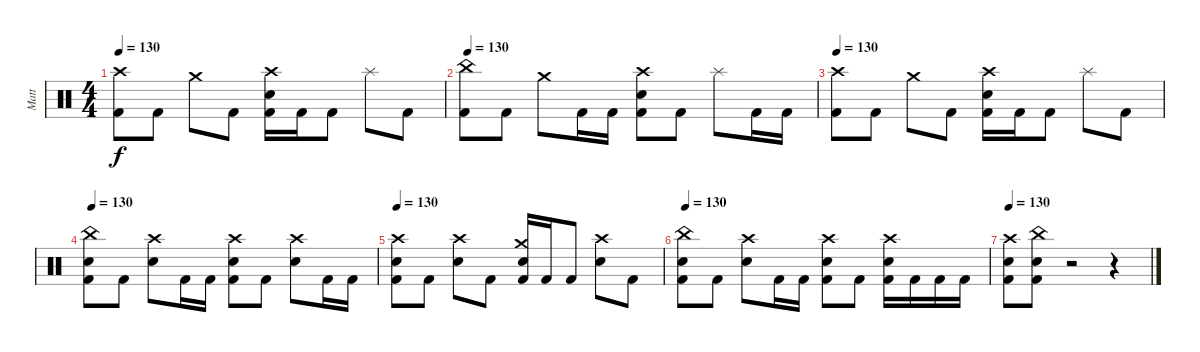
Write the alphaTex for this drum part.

\track ("Matt" "Matt") {instrument percussion}
\staff {score}
\articulation defaults
\ts (4 4)
\tempo 130
\clef neutral
\ks c
("Crash high (hit)" "Kick (hit) 2").8{dy f} "Kick (hit) 2".8 "Crash medium (hit)".8 "Kick (hit) 2".8 ("Crash high (hit)" "Electric Snare (hit)" "Kick (hit) 2").16 "Kick (hit) 2".16 "Kick (hit) 2".8 "Splash (hit)".8 "Kick (hit) 2".8 |
\tempo 130
("China (hit)" "Kick (hit) 2").8 "Kick (hit) 2".8 "Crash medium (hit)".8 "Kick (hit) 2".16 "Kick (hit) 2".16 ("Crash high (hit)" "Electric Snare (hit)" "Kick (hit) 2").8 "Kick (hit) 2".8 "Splash (hit)".8 "Kick (hit) 2".16 "Kick (hit) 2".16 |
\tempo 130
("Crash high (hit)" "Kick (hit) 2").8 "Kick (hit) 2".8 "Crash medium (hit)".8 "Kick (hit) 2".8 ("Crash high (hit)" "Electric Snare (hit)" "Kick (hit) 2").16 "Kick (hit) 2".16 "Kick (hit) 2".8 "Splash (hit)".8 "Kick (hit) 2".8 |
\tempo 130
("China (hit)" "Electric Snare (hit)" "Kick (hit) 2").8 "Kick (hit) 2".8 ("Crash high (hit)" "Electric Snare (hit)").8 "Kick (hit) 2".16 "Kick (hit) 2".16 ("Crash high (hit)" "Electric Snare (hit)" "Kick (hit) 2").8 "Kick (hit) 2".8 ("Crash high (hit)" "Electric Snare (hit)").8 "Kick (hit) 2".16 "Kick (hit) 2".16 |
\tempo 130
("Crash high (hit)" "Electric Snare (hit)" "Kick (hit) 2").8 "Kick (hit) 2".8 ("Crash high (hit)" "Electric Snare (hit)").8 "Kick (hit) 2".8 ("Crash medium (hit)" "Electric Snare (hit)" "Kick (hit) 2").16 "Kick (hit) 2".16 "Kick (hit) 2".8 ("Crash high (hit)" "Electric Snare (hit)").8 "Kick (hit) 2".8 |
\tempo 130
("China (hit)" "Electric Snare (hit)" "Kick (hit) 2").8 "Kick (hit) 2".8 ("Crash high (hit)" "Electric Snare (hit)").8 "Kick (hit) 2".16 "Kick (hit) 2".16 ("Crash high (hit)" "Electric Snare (hit)" "Kick (hit) 2").8 "Kick (hit) 2".8 ("Crash high (hit)" "Electric Snare (hit)" "Kick (hit) 2").16 "Kick (hit) 2".16 "Kick (hit) 2".16 "Kick (hit) 2".16 |
\tempo 130
("Crash high (hit)" "Electric Snare (hit)" "Kick (hit) 2").8 ("China (hit)" "Electric Snare (hit)" "Kick (hit) 2").8 r.2 r.4
